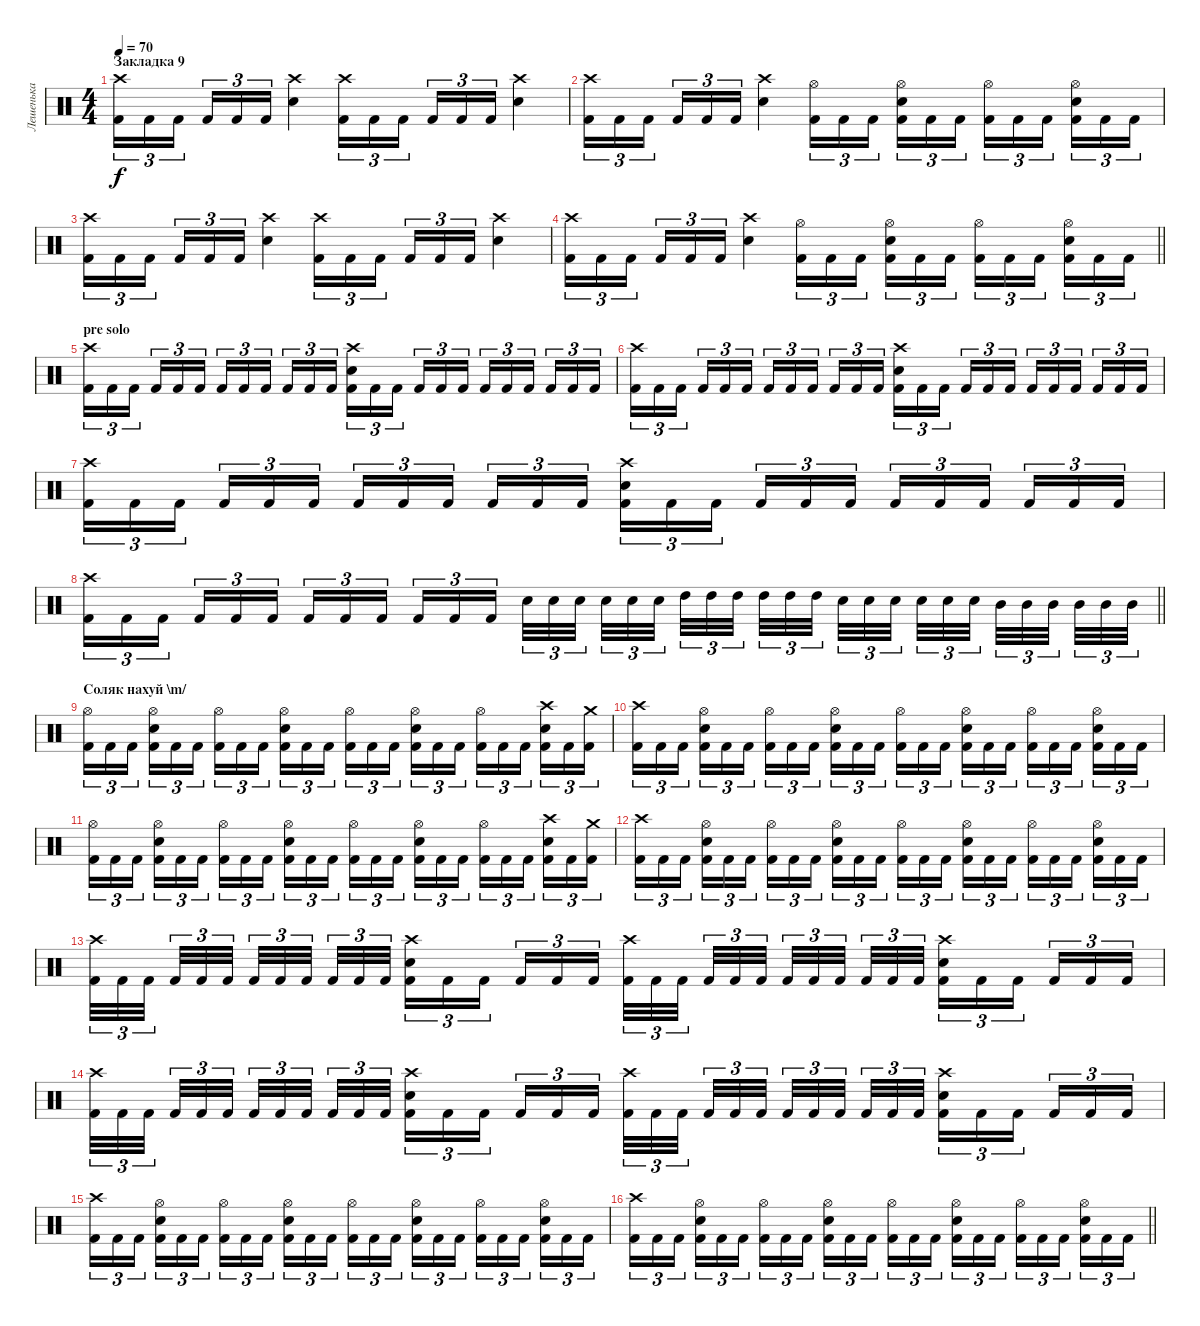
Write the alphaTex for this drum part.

\track ("Лешенька" "Лешенька") {instrument percussion}
\staff {score}
\articulation defaults
\ts (4 4)
\section ("" "Закладка 9")
\tempo 70
\clef neutral
\ks c
("Crash high (hit)" "Kick (hit) 2").16{tu (3 2) dy f} "Kick (hit) 2".16{tu (3 2)} "Kick (hit) 2".16{tu (3 2) beam splitsecondary} "Kick (hit) 2".16{tu (3 2)} "Kick (hit) 2".16{tu (3 2)} "Kick (hit) 2".16{tu (3 2)} ("Crash high (hit)" "Electric Snare (hit)").4 ("Crash high (hit)" "Kick (hit) 2").16{tu (3 2)} "Kick (hit) 2".16{tu (3 2)} "Kick (hit) 2".16{tu (3 2) beam splitsecondary} "Kick (hit) 2".16{tu (3 2)} "Kick (hit) 2".16{tu (3 2)} "Kick (hit) 2".16{tu (3 2)} ("Crash high (hit)" "Electric Snare (hit)").4 |
("Crash high (hit)" "Kick (hit) 2").16{tu (3 2)} "Kick (hit) 2".16{tu (3 2)} "Kick (hit) 2".16{tu (3 2) beam splitsecondary} "Kick (hit) 2".16{tu (3 2)} "Kick (hit) 2".16{tu (3 2)} "Kick (hit) 2".16{tu (3 2)} ("Crash high (hit)" "Electric Snare (hit)").4 ("Hi-Hat (open)" "Kick (hit) 2").16{tu (3 2)} "Kick (hit) 2".16{tu (3 2)} "Kick (hit) 2".16{tu (3 2) beam splitsecondary} ("Hi-Hat (open)" "Electric Snare (hit)" "Kick (hit) 2").16{tu (3 2)} "Kick (hit) 2".16{tu (3 2)} "Kick (hit) 2".16{tu (3 2)} ("Hi-Hat (open)" "Kick (hit) 2").16{tu (3 2)} "Kick (hit) 2".16{tu (3 2)} "Kick (hit) 2".16{tu (3 2) beam splitsecondary} ("Hi-Hat (open)" "Electric Snare (hit)" "Kick (hit) 2").16{tu (3 2)} "Kick (hit) 2".16{tu (3 2)} "Kick (hit) 2".16{tu (3 2)} |
("Crash high (hit)" "Kick (hit) 2").16{tu (3 2)} "Kick (hit) 2".16{tu (3 2)} "Kick (hit) 2".16{tu (3 2) beam splitsecondary} "Kick (hit) 2".16{tu (3 2)} "Kick (hit) 2".16{tu (3 2)} "Kick (hit) 2".16{tu (3 2)} ("Crash high (hit)" "Electric Snare (hit)").4 ("Crash high (hit)" "Kick (hit) 2").16{tu (3 2)} "Kick (hit) 2".16{tu (3 2)} "Kick (hit) 2".16{tu (3 2) beam splitsecondary} "Kick (hit) 2".16{tu (3 2)} "Kick (hit) 2".16{tu (3 2)} "Kick (hit) 2".16{tu (3 2)} ("Crash high (hit)" "Electric Snare (hit)").4 |
\barLineRight lightlight
("Crash high (hit)" "Kick (hit) 2").16{tu (3 2)} "Kick (hit) 2".16{tu (3 2)} "Kick (hit) 2".16{tu (3 2) beam splitsecondary} "Kick (hit) 2".16{tu (3 2)} "Kick (hit) 2".16{tu (3 2)} "Kick (hit) 2".16{tu (3 2)} ("Crash high (hit)" "Electric Snare (hit)").4 ("Hi-Hat (open)" "Kick (hit) 2").16{tu (3 2)} "Kick (hit) 2".16{tu (3 2)} "Kick (hit) 2".16{tu (3 2) beam splitsecondary} ("Hi-Hat (open)" "Electric Snare (hit)" "Kick (hit) 2").16{tu (3 2)} "Kick (hit) 2".16{tu (3 2)} "Kick (hit) 2".16{tu (3 2)} ("Hi-Hat (open)" "Kick (hit) 2").16{tu (3 2)} "Kick (hit) 2".16{tu (3 2)} "Kick (hit) 2".16{tu (3 2) beam splitsecondary} ("Hi-Hat (open)" "Electric Snare (hit)" "Kick (hit) 2").16{tu (3 2)} "Kick (hit) 2".16{tu (3 2)} "Kick (hit) 2".16{tu (3 2)} |
\section ("" "pre solo")
("Crash high (hit)" "Kick (hit) 2").16{tu (3 2)} "Kick (hit) 2".16{tu (3 2)} "Kick (hit) 2".16{tu (3 2) beam splitsecondary} "Kick (hit) 2".16{tu (3 2)} "Kick (hit) 2".16{tu (3 2)} "Kick (hit) 2".16{tu (3 2)} "Kick (hit) 2".16{tu (3 2)} "Kick (hit) 2".16{tu (3 2)} "Kick (hit) 2".16{tu (3 2) beam splitsecondary} "Kick (hit) 2".16{tu (3 2)} "Kick (hit) 2".16{tu (3 2)} "Kick (hit) 2".16{tu (3 2)} ("Crash high (hit)" "Electric Snare (hit)" "Kick (hit) 2").16{tu (3 2)} "Kick (hit) 2".16{tu (3 2)} "Kick (hit) 2".16{tu (3 2) beam splitsecondary} "Kick (hit) 2".16{tu (3 2)} "Kick (hit) 2".16{tu (3 2)} "Kick (hit) 2".16{tu (3 2)} "Kick (hit) 2".16{tu (3 2)} "Kick (hit) 2".16{tu (3 2)} "Kick (hit) 2".16{tu (3 2) beam splitsecondary} "Kick (hit) 2".16{tu (3 2)} "Kick (hit) 2".16{tu (3 2)} "Kick (hit) 2".16{tu (3 2)} |
("Crash high (hit)" "Kick (hit) 2").16{tu (3 2)} "Kick (hit) 2".16{tu (3 2)} "Kick (hit) 2".16{tu (3 2) beam splitsecondary} "Kick (hit) 2".16{tu (3 2)} "Kick (hit) 2".16{tu (3 2)} "Kick (hit) 2".16{tu (3 2)} "Kick (hit) 2".16{tu (3 2)} "Kick (hit) 2".16{tu (3 2)} "Kick (hit) 2".16{tu (3 2) beam splitsecondary} "Kick (hit) 2".16{tu (3 2)} "Kick (hit) 2".16{tu (3 2)} "Kick (hit) 2".16{tu (3 2)} ("Crash high (hit)" "Electric Snare (hit)" "Kick (hit) 2").16{tu (3 2)} "Kick (hit) 2".16{tu (3 2)} "Kick (hit) 2".16{tu (3 2) beam splitsecondary} "Kick (hit) 2".16{tu (3 2)} "Kick (hit) 2".16{tu (3 2)} "Kick (hit) 2".16{tu (3 2)} "Kick (hit) 2".16{tu (3 2)} "Kick (hit) 2".16{tu (3 2)} "Kick (hit) 2".16{tu (3 2) beam splitsecondary} "Kick (hit) 2".16{tu (3 2)} "Kick (hit) 2".16{tu (3 2)} "Kick (hit) 2".16{tu (3 2)} |
("Crash high (hit)" "Kick (hit) 2").16{tu (3 2)} "Kick (hit) 2".16{tu (3 2)} "Kick (hit) 2".16{tu (3 2) beam splitsecondary} "Kick (hit) 2".16{tu (3 2)} "Kick (hit) 2".16{tu (3 2)} "Kick (hit) 2".16{tu (3 2)} "Kick (hit) 2".16{tu (3 2)} "Kick (hit) 2".16{tu (3 2)} "Kick (hit) 2".16{tu (3 2) beam splitsecondary} "Kick (hit) 2".16{tu (3 2)} "Kick (hit) 2".16{tu (3 2)} "Kick (hit) 2".16{tu (3 2)} ("Crash high (hit)" "Electric Snare (hit)" "Kick (hit) 2").16{tu (3 2)} "Kick (hit) 2".16{tu (3 2)} "Kick (hit) 2".16{tu (3 2) beam splitsecondary} "Kick (hit) 2".16{tu (3 2)} "Kick (hit) 2".16{tu (3 2)} "Kick (hit) 2".16{tu (3 2)} "Kick (hit) 2".16{tu (3 2)} "Kick (hit) 2".16{tu (3 2)} "Kick (hit) 2".16{tu (3 2) beam splitsecondary} "Kick (hit) 2".16{tu (3 2)} "Kick (hit) 2".16{tu (3 2)} "Kick (hit) 2".16{tu (3 2)} |
\barLineRight lightlight
("Crash high (hit)" "Kick (hit) 2").16{tu (3 2)} "Kick (hit) 2".16{tu (3 2)} "Kick (hit) 2".16{tu (3 2) beam splitsecondary} "Kick (hit) 2".16{tu (3 2)} "Kick (hit) 2".16{tu (3 2)} "Kick (hit) 2".16{tu (3 2)} "Kick (hit) 2".16{tu (3 2)} "Kick (hit) 2".16{tu (3 2)} "Kick (hit) 2".16{tu (3 2) beam splitsecondary} "Kick (hit) 2".16{tu (3 2)} "Kick (hit) 2".16{tu (3 2)} "Kick (hit) 2".16{tu (3 2)} "Electric Snare (hit)".32{tu (3 2)} "Electric Snare (hit)".32{tu (3 2)} "Electric Snare (hit)".32{tu (3 2) beam splitsecondary} "Electric Snare (hit)".32{tu (3 2)} "Electric Snare (hit)".32{tu (3 2)} "Electric Snare (hit)".32{tu (3 2) beam splitsecondary} "High Tom (hit)".32{tu (3 2)} "High Tom (hit)".32{tu (3 2)} "High Tom (hit)".32{tu (3 2) beam splitsecondary} "High Tom (hit)".32{tu (3 2)} "High Tom (hit)".32{tu (3 2)} "High Tom (hit)".32{tu (3 2)} "Electric Snare (hit)".32{tu (3 2)} "Electric Snare (hit)".32{tu (3 2)} "Electric Snare (hit)".32{tu (3 2) beam splitsecondary} "Electric Snare (hit)".32{tu (3 2)} "Electric Snare (hit)".32{tu (3 2)} "Electric Snare (hit)".32{tu (3 2) beam splitsecondary} "Mid Tom (hit)".32{tu (3 2)} "Mid Tom (hit)".32{tu (3 2)} "Mid Tom (hit)".32{tu (3 2) beam splitsecondary} "Mid Tom (hit)".32{tu (3 2)} "Mid Tom (hit)".32{tu (3 2)} "Mid Tom (hit)".32{tu (3 2)} |
\section ("" "Соляк нахуй \\m/")
("Hi-Hat (open)" "Kick (hit) 2").16{tu (3 2)} "Kick (hit) 2".16{tu (3 2)} "Kick (hit) 2".16{tu (3 2) beam splitsecondary} ("Hi-Hat (open)" "Electric Snare (hit)" "Kick (hit) 2").16{tu (3 2)} "Kick (hit) 2".16{tu (3 2)} "Kick (hit) 2".16{tu (3 2)} ("Hi-Hat (open)" "Kick (hit) 2").16{tu (3 2)} "Kick (hit) 2".16{tu (3 2)} "Kick (hit) 2".16{tu (3 2) beam splitsecondary} ("Hi-Hat (open)" "Electric Snare (hit)" "Kick (hit) 2").16{tu (3 2)} "Kick (hit) 2".16{tu (3 2)} "Kick (hit) 2".16{tu (3 2)} ("Hi-Hat (open)" "Kick (hit) 2").16{tu (3 2)} "Kick (hit) 2".16{tu (3 2)} "Kick (hit) 2".16{tu (3 2) beam splitsecondary} ("Hi-Hat (open)" "Electric Snare (hit)" "Kick (hit) 2").16{tu (3 2)} "Kick (hit) 2".16{tu (3 2)} "Kick (hit) 2".16{tu (3 2)} ("Hi-Hat (open)" "Kick (hit) 2").16{tu (3 2)} "Kick (hit) 2".16{tu (3 2)} "Kick (hit) 2".16{tu (3 2) beam splitsecondary} ("Crash high (hit)" "Electric Snare (hit)" "Kick (hit) 2").16{tu (3 2)} "Kick (hit) 2".16{tu (3 2)} ("Crash medium (hit)" "Kick (hit) 2").16{tu (3 2)} |
("Crash high (hit)" "Kick (hit) 2").16{tu (3 2)} "Kick (hit) 2".16{tu (3 2)} "Kick (hit) 2".16{tu (3 2) beam splitsecondary} ("Hi-Hat (open)" "Electric Snare (hit)" "Kick (hit) 2").16{tu (3 2)} "Kick (hit) 2".16{tu (3 2)} "Kick (hit) 2".16{tu (3 2)} ("Hi-Hat (open)" "Kick (hit) 2").16{tu (3 2)} "Kick (hit) 2".16{tu (3 2)} "Kick (hit) 2".16{tu (3 2) beam splitsecondary} ("Hi-Hat (open)" "Electric Snare (hit)" "Kick (hit) 2").16{tu (3 2)} "Kick (hit) 2".16{tu (3 2)} "Kick (hit) 2".16{tu (3 2)} ("Hi-Hat (open)" "Kick (hit) 2").16{tu (3 2)} "Kick (hit) 2".16{tu (3 2)} "Kick (hit) 2".16{tu (3 2) beam splitsecondary} ("Hi-Hat (open)" "Electric Snare (hit)" "Kick (hit) 2").16{tu (3 2)} "Kick (hit) 2".16{tu (3 2)} "Kick (hit) 2".16{tu (3 2)} ("Hi-Hat (open)" "Kick (hit) 2").16{tu (3 2)} "Kick (hit) 2".16{tu (3 2)} "Kick (hit) 2".16{tu (3 2) beam splitsecondary} ("Hi-Hat (open)" "Electric Snare (hit)" "Kick (hit) 2").16{tu (3 2)} "Kick (hit) 2".16{tu (3 2)} "Kick (hit) 2".16{tu (3 2)} |
("Hi-Hat (open)" "Kick (hit) 2").16{tu (3 2)} "Kick (hit) 2".16{tu (3 2)} "Kick (hit) 2".16{tu (3 2) beam splitsecondary} ("Hi-Hat (open)" "Electric Snare (hit)" "Kick (hit) 2").16{tu (3 2)} "Kick (hit) 2".16{tu (3 2)} "Kick (hit) 2".16{tu (3 2)} ("Hi-Hat (open)" "Kick (hit) 2").16{tu (3 2)} "Kick (hit) 2".16{tu (3 2)} "Kick (hit) 2".16{tu (3 2) beam splitsecondary} ("Hi-Hat (open)" "Electric Snare (hit)" "Kick (hit) 2").16{tu (3 2)} "Kick (hit) 2".16{tu (3 2)} "Kick (hit) 2".16{tu (3 2)} ("Hi-Hat (open)" "Kick (hit) 2").16{tu (3 2)} "Kick (hit) 2".16{tu (3 2)} "Kick (hit) 2".16{tu (3 2) beam splitsecondary} ("Hi-Hat (open)" "Electric Snare (hit)" "Kick (hit) 2").16{tu (3 2)} "Kick (hit) 2".16{tu (3 2)} "Kick (hit) 2".16{tu (3 2)} ("Hi-Hat (open)" "Kick (hit) 2").16{tu (3 2)} "Kick (hit) 2".16{tu (3 2)} "Kick (hit) 2".16{tu (3 2) beam splitsecondary} ("Crash high (hit)" "Electric Snare (hit)" "Kick (hit) 2").16{tu (3 2)} "Kick (hit) 2".16{tu (3 2)} ("Crash medium (hit)" "Kick (hit) 2").16{tu (3 2)} |
("Crash high (hit)" "Kick (hit) 2").16{tu (3 2)} "Kick (hit) 2".16{tu (3 2)} "Kick (hit) 2".16{tu (3 2) beam splitsecondary} ("Hi-Hat (open)" "Electric Snare (hit)" "Kick (hit) 2").16{tu (3 2)} "Kick (hit) 2".16{tu (3 2)} "Kick (hit) 2".16{tu (3 2)} ("Hi-Hat (open)" "Kick (hit) 2").16{tu (3 2)} "Kick (hit) 2".16{tu (3 2)} "Kick (hit) 2".16{tu (3 2) beam splitsecondary} ("Hi-Hat (open)" "Electric Snare (hit)" "Kick (hit) 2").16{tu (3 2)} "Kick (hit) 2".16{tu (3 2)} "Kick (hit) 2".16{tu (3 2)} ("Hi-Hat (open)" "Kick (hit) 2").16{tu (3 2)} "Kick (hit) 2".16{tu (3 2)} "Kick (hit) 2".16{tu (3 2) beam splitsecondary} ("Hi-Hat (open)" "Electric Snare (hit)" "Kick (hit) 2").16{tu (3 2)} "Kick (hit) 2".16{tu (3 2)} "Kick (hit) 2".16{tu (3 2)} ("Hi-Hat (open)" "Kick (hit) 2").16{tu (3 2)} "Kick (hit) 2".16{tu (3 2)} "Kick (hit) 2".16{tu (3 2) beam splitsecondary} ("Hi-Hat (open)" "Electric Snare (hit)" "Kick (hit) 2").16{tu (3 2)} "Kick (hit) 2".16{tu (3 2)} "Kick (hit) 2".16{tu (3 2)} |
("Crash high (hit)" "Kick (hit) 2").32{tu (3 2)} "Kick (hit) 2".32{tu (3 2)} "Kick (hit) 2".32{tu (3 2) beam splitsecondary} "Kick (hit) 2".32{tu (3 2)} "Kick (hit) 2".32{tu (3 2)} "Kick (hit) 2".32{tu (3 2) beam splitsecondary} "Kick (hit) 2".32{tu (3 2)} "Kick (hit) 2".32{tu (3 2)} "Kick (hit) 2".32{tu (3 2) beam splitsecondary} "Kick (hit) 2".32{tu (3 2)} "Kick (hit) 2".32{tu (3 2)} "Kick (hit) 2".32{tu (3 2)} ("Crash high (hit)" "Electric Snare (hit)" "Kick (hit) 2").16{tu (3 2)} "Kick (hit) 2".16{tu (3 2)} "Kick (hit) 2".16{tu (3 2) beam splitsecondary} "Kick (hit) 2".16{tu (3 2)} "Kick (hit) 2".16{tu (3 2)} "Kick (hit) 2".16{tu (3 2)} ("Crash high (hit)" "Kick (hit) 2").32{tu (3 2)} "Kick (hit) 2".32{tu (3 2)} "Kick (hit) 2".32{tu (3 2) beam splitsecondary} "Kick (hit) 2".32{tu (3 2)} "Kick (hit) 2".32{tu (3 2)} "Kick (hit) 2".32{tu (3 2) beam splitsecondary} "Kick (hit) 2".32{tu (3 2)} "Kick (hit) 2".32{tu (3 2)} "Kick (hit) 2".32{tu (3 2) beam splitsecondary} "Kick (hit) 2".32{tu (3 2)} "Kick (hit) 2".32{tu (3 2)} "Kick (hit) 2".32{tu (3 2)} ("Crash high (hit)" "Electric Snare (hit)" "Kick (hit) 2").16{tu (3 2)} "Kick (hit) 2".16{tu (3 2)} "Kick (hit) 2".16{tu (3 2) beam splitsecondary} "Kick (hit) 2".16{tu (3 2)} "Kick (hit) 2".16{tu (3 2)} "Kick (hit) 2".16{tu (3 2)} |
("Crash high (hit)" "Kick (hit) 2").32{tu (3 2)} "Kick (hit) 2".32{tu (3 2)} "Kick (hit) 2".32{tu (3 2) beam splitsecondary} "Kick (hit) 2".32{tu (3 2)} "Kick (hit) 2".32{tu (3 2)} "Kick (hit) 2".32{tu (3 2) beam splitsecondary} "Kick (hit) 2".32{tu (3 2)} "Kick (hit) 2".32{tu (3 2)} "Kick (hit) 2".32{tu (3 2) beam splitsecondary} "Kick (hit) 2".32{tu (3 2)} "Kick (hit) 2".32{tu (3 2)} "Kick (hit) 2".32{tu (3 2)} ("Crash high (hit)" "Electric Snare (hit)" "Kick (hit) 2").16{tu (3 2)} "Kick (hit) 2".16{tu (3 2)} "Kick (hit) 2".16{tu (3 2) beam splitsecondary} "Kick (hit) 2".16{tu (3 2)} "Kick (hit) 2".16{tu (3 2)} "Kick (hit) 2".16{tu (3 2)} ("Crash high (hit)" "Kick (hit) 2").32{tu (3 2)} "Kick (hit) 2".32{tu (3 2)} "Kick (hit) 2".32{tu (3 2) beam splitsecondary} "Kick (hit) 2".32{tu (3 2)} "Kick (hit) 2".32{tu (3 2)} "Kick (hit) 2".32{tu (3 2) beam splitsecondary} "Kick (hit) 2".32{tu (3 2)} "Kick (hit) 2".32{tu (3 2)} "Kick (hit) 2".32{tu (3 2) beam splitsecondary} "Kick (hit) 2".32{tu (3 2)} "Kick (hit) 2".32{tu (3 2)} "Kick (hit) 2".32{tu (3 2)} ("Crash high (hit)" "Electric Snare (hit)" "Kick (hit) 2").16{tu (3 2)} "Kick (hit) 2".16{tu (3 2)} "Kick (hit) 2".16{tu (3 2) beam splitsecondary} "Kick (hit) 2".16{tu (3 2)} "Kick (hit) 2".16{tu (3 2)} "Kick (hit) 2".16{tu (3 2)} |
("Crash high (hit)" "Kick (hit) 2").16{tu (3 2)} "Kick (hit) 2".16{tu (3 2)} "Kick (hit) 2".16{tu (3 2) beam splitsecondary} ("Hi-Hat (open)" "Electric Snare (hit)" "Kick (hit) 2").16{tu (3 2)} "Kick (hit) 2".16{tu (3 2)} "Kick (hit) 2".16{tu (3 2)} ("Hi-Hat (open)" "Kick (hit) 2").16{tu (3 2)} "Kick (hit) 2".16{tu (3 2)} "Kick (hit) 2".16{tu (3 2) beam splitsecondary} ("Hi-Hat (open)" "Electric Snare (hit)" "Kick (hit) 2").16{tu (3 2)} "Kick (hit) 2".16{tu (3 2)} "Kick (hit) 2".16{tu (3 2)} ("Hi-Hat (open)" "Kick (hit) 2").16{tu (3 2)} "Kick (hit) 2".16{tu (3 2)} "Kick (hit) 2".16{tu (3 2) beam splitsecondary} ("Hi-Hat (open)" "Electric Snare (hit)" "Kick (hit) 2").16{tu (3 2)} "Kick (hit) 2".16{tu (3 2)} "Kick (hit) 2".16{tu (3 2)} ("Hi-Hat (open)" "Kick (hit) 2").16{tu (3 2)} "Kick (hit) 2".16{tu (3 2)} "Kick (hit) 2".16{tu (3 2) beam splitsecondary} ("Hi-Hat (open)" "Electric Snare (hit)" "Kick (hit) 2").16{tu (3 2)} "Kick (hit) 2".16{tu (3 2)} "Kick (hit) 2".16{tu (3 2)} |
\barLineRight lightlight
("Crash high (hit)" "Kick (hit) 2").16{tu (3 2)} "Kick (hit) 2".16{tu (3 2)} "Kick (hit) 2".16{tu (3 2) beam splitsecondary} ("Hi-Hat (open)" "Electric Snare (hit)" "Kick (hit) 2").16{tu (3 2)} "Kick (hit) 2".16{tu (3 2)} "Kick (hit) 2".16{tu (3 2)} ("Hi-Hat (open)" "Kick (hit) 2").16{tu (3 2)} "Kick (hit) 2".16{tu (3 2)} "Kick (hit) 2".16{tu (3 2) beam splitsecondary} ("Hi-Hat (open)" "Electric Snare (hit)" "Kick (hit) 2").16{tu (3 2)} "Kick (hit) 2".16{tu (3 2)} "Kick (hit) 2".16{tu (3 2)} ("Hi-Hat (open)" "Kick (hit) 2").16{tu (3 2)} "Kick (hit) 2".16{tu (3 2)} "Kick (hit) 2".16{tu (3 2) beam splitsecondary} ("Hi-Hat (open)" "Electric Snare (hit)" "Kick (hit) 2").16{tu (3 2)} "Kick (hit) 2".16{tu (3 2)} "Kick (hit) 2".16{tu (3 2)} ("Hi-Hat (open)" "Kick (hit) 2").16{tu (3 2)} "Kick (hit) 2".16{tu (3 2)} "Kick (hit) 2".16{tu (3 2) beam splitsecondary} ("Hi-Hat (open)" "Electric Snare (hit)" "Kick (hit) 2").16{tu (3 2)} "Kick (hit) 2".16{tu (3 2)} "Kick (hit) 2".16{tu (3 2)}
